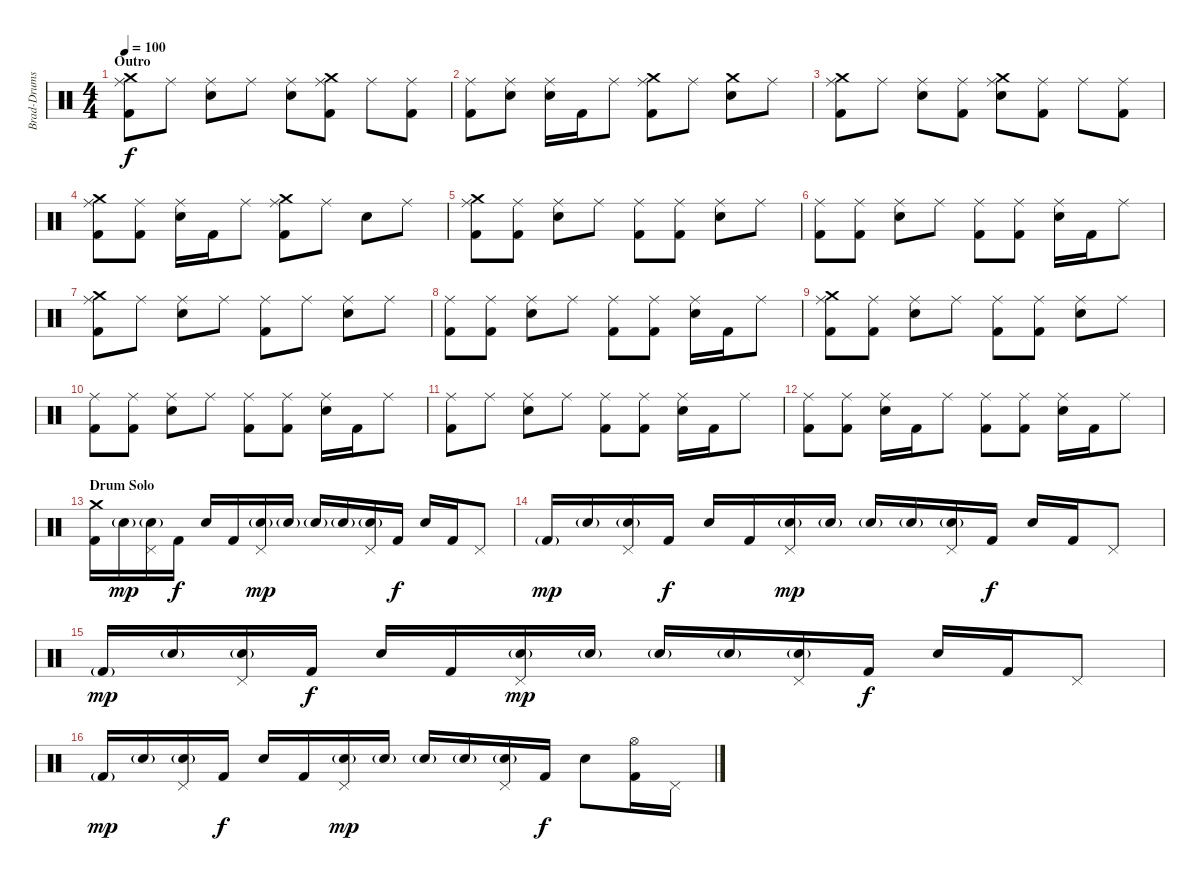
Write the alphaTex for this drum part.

\track ("Brad-Drums" "Brad-Drums") {instrument percussion}
\staff {score}
\articulation defaults
\ts (4 4)
\section ("" "Outro")
\tempo 100
\clef neutral
\ks c
("Crash medium (hit)" "Ride (middle)" "Kick (hit) 2").8{dy f} "Ride (middle)".8 ("Ride (middle)" "Electric Snare (hit)").8 "Ride (middle)".8 ("Ride (middle)" "Electric Snare (hit)").8 ("Crash medium (hit)" "Ride (middle)" "Kick (hit) 2").8 "Ride (middle)".8 ("Ride (middle)" "Kick (hit) 2").8 |
("Ride (middle)" "Kick (hit) 2").8 ("Ride (middle)" "Electric Snare (hit)").8 ("Ride (middle)" "Electric Snare (hit)").16 "Kick (hit) 2".16 "Ride (middle)".8 ("Crash medium (hit)" "Ride (middle)" "Kick (hit) 2").8 "Ride (middle)".8 ("Crash medium (hit)" "Electric Snare (hit)").8 "Ride (middle)".8 |
("Crash medium (hit)" "Ride (middle)" "Kick (hit) 2").8 "Ride (middle)".8 ("Ride (middle)" "Electric Snare (hit)").8 ("Ride (middle)" "Kick (hit) 2").8 ("Crash medium (hit)" "Ride (middle)" "Electric Snare (hit)").8 ("Ride (middle)" "Kick (hit) 2").8 "Ride (middle)".8 ("Ride (middle)" "Kick (hit) 2").8 |
("Crash medium (hit)" "Ride (middle)" "Kick (hit) 2").8 ("Ride (middle)" "Kick (hit) 2").8 ("Ride (middle)" "Electric Snare (hit)").16 "Kick (hit) 2".16 "Ride (middle)".8 ("Crash medium (hit)" "Ride (middle)" "Kick (hit) 2").8 "Ride (middle)".8 "Electric Snare (hit)".8 "Ride (middle)".8 |
("Crash medium (hit)" "Ride (middle)" "Kick (hit) 2").8 ("Ride (middle)" "Kick (hit) 2").8 ("Ride (middle)" "Electric Snare (hit)").8 "Ride (middle)".8 ("Ride (middle)" "Kick (hit) 2").8 ("Ride (middle)" "Kick (hit) 2").8 ("Ride (middle)" "Electric Snare (hit)").8 "Ride (middle)".8 |
("Ride (middle)" "Kick (hit) 2").8 ("Ride (middle)" "Kick (hit) 2").8 ("Ride (middle)" "Electric Snare (hit)").8 "Ride (middle)".8 ("Ride (middle)" "Kick (hit) 2").8 ("Ride (middle)" "Kick (hit) 2").8 ("Ride (middle)" "Electric Snare (hit)").16 "Kick (hit) 2".16 "Ride (middle)".8 |
("Crash medium (hit)" "Ride (middle)" "Kick (hit) 2").8 "Ride (middle)".8 ("Ride (middle)" "Electric Snare (hit)").8 "Ride (middle)".8 ("Ride (middle)" "Kick (hit) 2").8 "Ride (middle)".8 ("Ride (middle)" "Electric Snare (hit)").8 "Ride (middle)".8 |
("Ride (middle)" "Kick (hit) 2").8 ("Ride (middle)" "Kick (hit) 2").8 ("Ride (middle)" "Electric Snare (hit)").8 "Ride (middle)".8 ("Ride (middle)" "Kick (hit) 2").8 ("Ride (middle)" "Kick (hit) 2").8 ("Ride (middle)" "Electric Snare (hit)").16 "Kick (hit) 2".16 "Ride (middle)".8 |
("Crash medium (hit)" "Ride (middle)" "Kick (hit) 2").8 ("Ride (middle)" "Kick (hit) 2").8 ("Ride (middle)" "Electric Snare (hit)").8 "Ride (middle)".8 ("Ride (middle)" "Kick (hit) 2").8 ("Ride (middle)" "Kick (hit) 2").8 ("Ride (middle)" "Electric Snare (hit)").8 "Ride (middle)".8 |
("Ride (middle)" "Kick (hit) 2").8 ("Ride (middle)" "Kick (hit) 2").8 ("Ride (middle)" "Electric Snare (hit)").8 "Ride (middle)".8 ("Ride (middle)" "Kick (hit) 2").8 ("Ride (middle)" "Kick (hit) 2").8 ("Ride (middle)" "Electric Snare (hit)").16 "Kick (hit) 2".16 "Ride (middle)".8 |
("Ride (middle)" "Kick (hit) 2").8 "Ride (middle)".8 ("Ride (middle)" "Electric Snare (hit)").8 "Ride (middle)".8 ("Ride (middle)" "Kick (hit) 2").8 ("Ride (middle)" "Kick (hit) 2").8 ("Ride (middle)" "Electric Snare (hit)").16 "Kick (hit) 2".16 "Ride (middle)".8 |
("Ride (middle)" "Kick (hit) 2").8 ("Ride (middle)" "Kick (hit) 2").8 ("Ride (middle)" "Electric Snare (hit)").16 "Kick (hit) 2".16 "Ride (middle)".8 ("Ride (middle)" "Kick (hit) 2").8 ("Ride (middle)" "Kick (hit) 2").8 ("Ride (middle)" "Electric Snare (hit)").16 "Kick (hit) 2".16 "Ride (middle)".8 |
\section ("" "Drum Solo")
("Crash medium (hit)" "Kick (hit) 2").16 "Electric Snare (hit)"{g}.16{dy mp} ("Pedal Hi-Hat (hit)" "Electric Snare (hit)"{g}).16 "Kick (hit) 2".16{dy f} "Electric Snare (hit)".16 "Kick (hit) 2".16 ("Pedal Hi-Hat (hit)" "Electric Snare (hit)"{g}).16{dy mp} "Electric Snare (hit)"{g}.16 "Electric Snare (hit)"{g}.16 "Electric Snare (hit)"{g}.16 ("Pedal Hi-Hat (hit)" "Electric Snare (hit)"{g}).16 "Kick (hit) 2".16{dy f} "Electric Snare (hit)".16 "Kick (hit) 2".16 "Pedal Hi-Hat (hit)".8 |
"Kick (hit) 2"{g}.16{dy mp} "Electric Snare (hit)"{g}.16 ("Pedal Hi-Hat (hit)" "Electric Snare (hit)"{g}).16 "Kick (hit) 2".16{dy f} "Electric Snare (hit)".16 "Kick (hit) 2".16 ("Pedal Hi-Hat (hit)" "Electric Snare (hit)"{g}).16{dy mp} "Electric Snare (hit)"{g}.16 "Electric Snare (hit)"{g}.16 "Electric Snare (hit)"{g}.16 ("Pedal Hi-Hat (hit)" "Electric Snare (hit)"{g}).16 "Kick (hit) 2".16{dy f} "Electric Snare (hit)".16 "Kick (hit) 2".16 "Pedal Hi-Hat (hit)".8 |
"Kick (hit) 2"{g}.16{dy mp} "Electric Snare (hit)"{g}.16 ("Pedal Hi-Hat (hit)" "Electric Snare (hit)"{g}).16 "Kick (hit) 2".16{dy f} "Electric Snare (hit)".16 "Kick (hit) 2".16 ("Pedal Hi-Hat (hit)" "Electric Snare (hit)"{g}).16{dy mp} "Electric Snare (hit)"{g}.16 "Electric Snare (hit)"{g}.16 "Electric Snare (hit)"{g}.16 ("Pedal Hi-Hat (hit)" "Electric Snare (hit)"{g}).16 "Kick (hit) 2".16{dy f} "Electric Snare (hit)".16 "Kick (hit) 2".16 "Pedal Hi-Hat (hit)".8 |
"Kick (hit) 2"{g}.16{dy mp} "Electric Snare (hit)"{g}.16 ("Pedal Hi-Hat (hit)" "Electric Snare (hit)"{g}).16 "Kick (hit) 2".16{dy f} "Electric Snare (hit)".16 "Kick (hit) 2".16 ("Pedal Hi-Hat (hit)" "Electric Snare (hit)"{g}).16{dy mp} "Electric Snare (hit)"{g}.16 "Electric Snare (hit)"{g}.16 "Electric Snare (hit)"{g}.16 ("Pedal Hi-Hat (hit)" "Electric Snare (hit)"{g}).16 "Kick (hit) 2".16{dy f} "Electric Snare (hit)".8 ("Hi-Hat (open)" "Kick (hit) 2").16 "Pedal Hi-Hat (hit)".16
